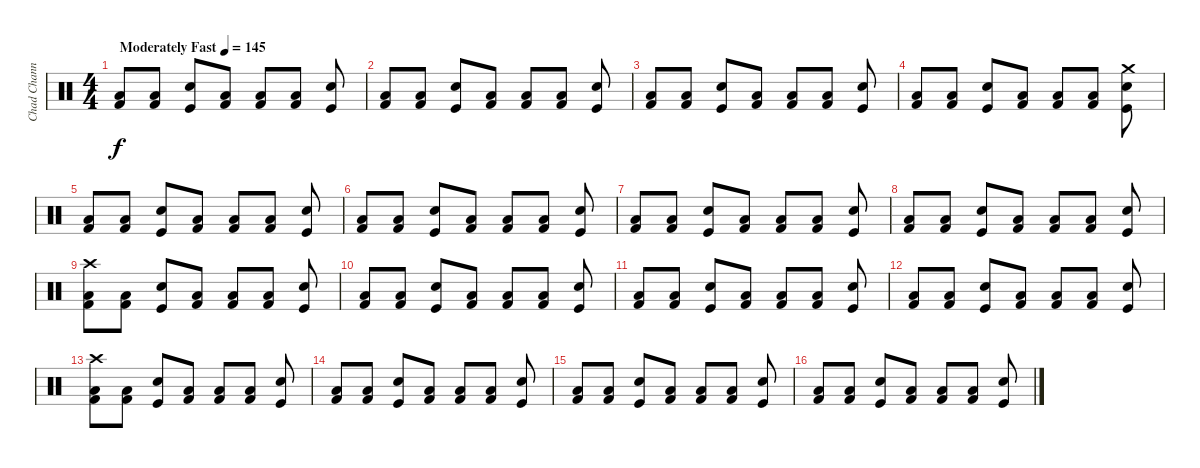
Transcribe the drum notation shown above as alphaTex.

\track ("Chad Channing" "Chad Chann") {instrument percussion}
\staff {score}
\articulation defaults
\ts (4 4)
\tempo (145 "Moderately Fast")
\clef neutral
\ks c
("Low Floor Tom (hit)" "Kick (hit) 2").8{dy f} ("Low Floor Tom (hit)" "Kick (hit) 2").8 ("Snare (hit) 2" "Kick (hit)").8 ("Low Floor Tom (hit)" "Kick (hit) 2").8 ("Low Floor Tom (hit)" "Kick (hit) 2").8 ("Low Floor Tom (hit)" "Kick (hit) 2").8 ("Snare (hit) 2" "Kick (hit)").8 |
("Low Floor Tom (hit)" "Kick (hit) 2").8 ("Low Floor Tom (hit)" "Kick (hit) 2").8 ("Snare (hit) 2" "Kick (hit)").8 ("Low Floor Tom (hit)" "Kick (hit) 2").8 ("Low Floor Tom (hit)" "Kick (hit) 2").8 ("Low Floor Tom (hit)" "Kick (hit) 2").8 ("Snare (hit) 2" "Kick (hit)").8 |
("Low Floor Tom (hit)" "Kick (hit) 2").8 ("Low Floor Tom (hit)" "Kick (hit) 2").8 ("Snare (hit) 2" "Kick (hit)").8 ("Low Floor Tom (hit)" "Kick (hit) 2").8 ("Low Floor Tom (hit)" "Kick (hit) 2").8 ("Low Floor Tom (hit)" "Kick (hit) 2").8 ("Snare (hit) 2" "Kick (hit)").8 |
("Low Floor Tom (hit)" "Kick (hit) 2").8 ("Low Floor Tom (hit)" "Kick (hit) 2").8 ("Snare (hit) 2" "Kick (hit)").8 ("Low Floor Tom (hit)" "Kick (hit) 2").8 ("Low Floor Tom (hit)" "Kick (hit) 2").8 ("Low Floor Tom (hit)" "Kick (hit) 2").8 ("Snare (hit) 2" "Crash medium (hit)" "Kick (hit)").8 |
("Low Floor Tom (hit)" "Kick (hit) 2").8 ("Low Floor Tom (hit)" "Kick (hit) 2").8 ("Snare (hit) 2" "Kick (hit)").8 ("Low Floor Tom (hit)" "Kick (hit) 2").8 ("Low Floor Tom (hit)" "Kick (hit) 2").8 ("Low Floor Tom (hit)" "Kick (hit) 2").8 ("Snare (hit) 2" "Kick (hit)").8 |
("Low Floor Tom (hit)" "Kick (hit) 2").8 ("Low Floor Tom (hit)" "Kick (hit) 2").8 ("Snare (hit) 2" "Kick (hit)").8 ("Low Floor Tom (hit)" "Kick (hit) 2").8 ("Low Floor Tom (hit)" "Kick (hit) 2").8 ("Low Floor Tom (hit)" "Kick (hit) 2").8 ("Snare (hit) 2" "Kick (hit)").8 |
("Low Floor Tom (hit)" "Kick (hit) 2").8 ("Low Floor Tom (hit)" "Kick (hit) 2").8 ("Snare (hit) 2" "Kick (hit)").8 ("Low Floor Tom (hit)" "Kick (hit) 2").8 ("Low Floor Tom (hit)" "Kick (hit) 2").8 ("Low Floor Tom (hit)" "Kick (hit) 2").8 ("Snare (hit) 2" "Kick (hit)").8 |
("Low Floor Tom (hit)" "Kick (hit) 2").8 ("Low Floor Tom (hit)" "Kick (hit) 2").8 ("Snare (hit) 2" "Kick (hit)").8 ("Low Floor Tom (hit)" "Kick (hit) 2").8 ("Low Floor Tom (hit)" "Kick (hit) 2").8 ("Low Floor Tom (hit)" "Kick (hit) 2").8 ("Snare (hit) 2" "Kick (hit)").8 |
("Crash high (hit)" "Low Floor Tom (hit)" "Kick (hit) 2").8 ("Low Floor Tom (hit)" "Kick (hit) 2").8 ("Snare (hit) 2" "Kick (hit)").8 ("Low Floor Tom (hit)" "Kick (hit) 2").8 ("Low Floor Tom (hit)" "Kick (hit) 2").8 ("Low Floor Tom (hit)" "Kick (hit) 2").8 ("Snare (hit) 2" "Kick (hit)").8 |
("Low Floor Tom (hit)" "Kick (hit) 2").8 ("Low Floor Tom (hit)" "Kick (hit) 2").8 ("Snare (hit) 2" "Kick (hit)").8 ("Low Floor Tom (hit)" "Kick (hit) 2").8 ("Low Floor Tom (hit)" "Kick (hit) 2").8 ("Low Floor Tom (hit)" "Kick (hit) 2").8 ("Snare (hit) 2" "Kick (hit)").8 |
("Low Floor Tom (hit)" "Kick (hit) 2").8 ("Low Floor Tom (hit)" "Kick (hit) 2").8 ("Snare (hit) 2" "Kick (hit)").8 ("Low Floor Tom (hit)" "Kick (hit) 2").8 ("Low Floor Tom (hit)" "Kick (hit) 2").8 ("Low Floor Tom (hit)" "Kick (hit) 2").8 ("Snare (hit) 2" "Kick (hit)").8 |
("Low Floor Tom (hit)" "Kick (hit) 2").8 ("Low Floor Tom (hit)" "Kick (hit) 2").8 ("Snare (hit) 2" "Kick (hit)").8 ("Low Floor Tom (hit)" "Kick (hit) 2").8 ("Low Floor Tom (hit)" "Kick (hit) 2").8 ("Low Floor Tom (hit)" "Kick (hit) 2").8 ("Snare (hit) 2" "Kick (hit)").8 |
("Crash high (hit)" "Low Floor Tom (hit)" "Kick (hit) 2").8 ("Low Floor Tom (hit)" "Kick (hit) 2").8 ("Snare (hit) 2" "Kick (hit)").8 ("Low Floor Tom (hit)" "Kick (hit) 2").8 ("Low Floor Tom (hit)" "Kick (hit) 2").8 ("Low Floor Tom (hit)" "Kick (hit) 2").8 ("Snare (hit) 2" "Kick (hit)").8 |
("Low Floor Tom (hit)" "Kick (hit) 2").8 ("Low Floor Tom (hit)" "Kick (hit) 2").8 ("Snare (hit) 2" "Kick (hit)").8 ("Low Floor Tom (hit)" "Kick (hit) 2").8 ("Low Floor Tom (hit)" "Kick (hit) 2").8 ("Low Floor Tom (hit)" "Kick (hit) 2").8 ("Snare (hit) 2" "Kick (hit)").8 |
("Low Floor Tom (hit)" "Kick (hit) 2").8 ("Low Floor Tom (hit)" "Kick (hit) 2").8 ("Snare (hit) 2" "Kick (hit)").8 ("Low Floor Tom (hit)" "Kick (hit) 2").8 ("Low Floor Tom (hit)" "Kick (hit) 2").8 ("Low Floor Tom (hit)" "Kick (hit) 2").8 ("Snare (hit) 2" "Kick (hit)").8 |
("Low Floor Tom (hit)" "Kick (hit) 2").8 ("Low Floor Tom (hit)" "Kick (hit) 2").8 ("Snare (hit) 2" "Kick (hit)").8 ("Low Floor Tom (hit)" "Kick (hit) 2").8 ("Low Floor Tom (hit)" "Kick (hit) 2").8 ("Low Floor Tom (hit)" "Kick (hit) 2").8 ("Snare (hit) 2" "Kick (hit)").8
